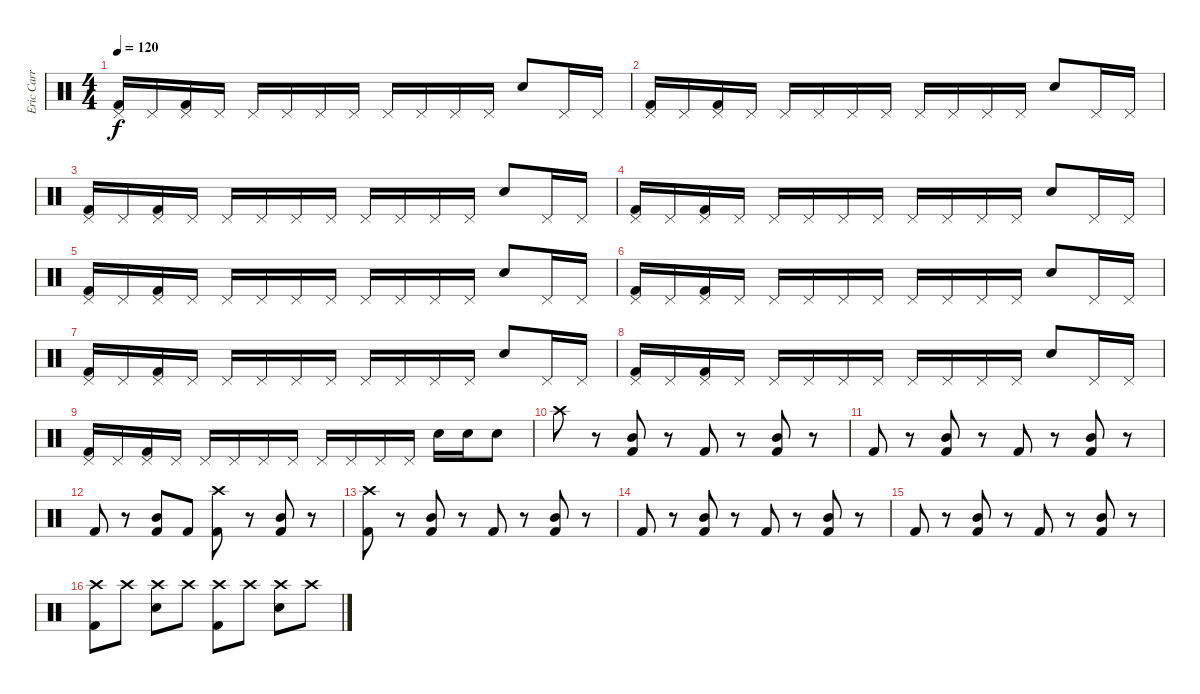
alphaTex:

\track ("Eric Carr" "Eric Carr") {instrument percussion}
\staff {score}
\articulation defaults
\ts (4 4)
\tempo 120
\clef neutral
\ks c
("Kick (hit) 2" "Pedal Hi-Hat (hit)").16{dy f} "Pedal Hi-Hat (hit)".16 ("Kick (hit) 2" "Pedal Hi-Hat (hit)").16 "Pedal Hi-Hat (hit)".16 "Pedal Hi-Hat (hit)".16 "Pedal Hi-Hat (hit)".16 "Pedal Hi-Hat (hit)".16 "Pedal Hi-Hat (hit)".16 "Pedal Hi-Hat (hit)".16 "Pedal Hi-Hat (hit)".16 "Pedal Hi-Hat (hit)".16 "Pedal Hi-Hat (hit)".16 "Snare (hit) 2".8 "Pedal Hi-Hat (hit)".16 "Pedal Hi-Hat (hit)".16 |
("Kick (hit) 2" "Pedal Hi-Hat (hit)").16 "Pedal Hi-Hat (hit)".16 ("Kick (hit) 2" "Pedal Hi-Hat (hit)").16 "Pedal Hi-Hat (hit)".16 "Pedal Hi-Hat (hit)".16 "Pedal Hi-Hat (hit)".16 "Pedal Hi-Hat (hit)".16 "Pedal Hi-Hat (hit)".16 "Pedal Hi-Hat (hit)".16 "Pedal Hi-Hat (hit)".16 "Pedal Hi-Hat (hit)".16 "Pedal Hi-Hat (hit)".16 "Snare (hit) 2".8 "Pedal Hi-Hat (hit)".16 "Pedal Hi-Hat (hit)".16 |
("Kick (hit) 2" "Pedal Hi-Hat (hit)").16 "Pedal Hi-Hat (hit)".16 ("Kick (hit) 2" "Pedal Hi-Hat (hit)").16 "Pedal Hi-Hat (hit)".16 "Pedal Hi-Hat (hit)".16 "Pedal Hi-Hat (hit)".16 "Pedal Hi-Hat (hit)".16 "Pedal Hi-Hat (hit)".16 "Pedal Hi-Hat (hit)".16 "Pedal Hi-Hat (hit)".16 "Pedal Hi-Hat (hit)".16 "Pedal Hi-Hat (hit)".16 "Snare (hit) 2".8 "Pedal Hi-Hat (hit)".16 "Pedal Hi-Hat (hit)".16 |
("Kick (hit) 2" "Pedal Hi-Hat (hit)").16 "Pedal Hi-Hat (hit)".16 ("Kick (hit) 2" "Pedal Hi-Hat (hit)").16 "Pedal Hi-Hat (hit)".16 "Pedal Hi-Hat (hit)".16 "Pedal Hi-Hat (hit)".16 "Pedal Hi-Hat (hit)".16 "Pedal Hi-Hat (hit)".16 "Pedal Hi-Hat (hit)".16 "Pedal Hi-Hat (hit)".16 "Pedal Hi-Hat (hit)".16 "Pedal Hi-Hat (hit)".16 "Snare (hit) 2".8 "Pedal Hi-Hat (hit)".16 "Pedal Hi-Hat (hit)".16 |
("Kick (hit) 2" "Pedal Hi-Hat (hit)").16 "Pedal Hi-Hat (hit)".16 ("Kick (hit) 2" "Pedal Hi-Hat (hit)").16 "Pedal Hi-Hat (hit)".16 "Pedal Hi-Hat (hit)".16 "Pedal Hi-Hat (hit)".16 "Pedal Hi-Hat (hit)".16 "Pedal Hi-Hat (hit)".16 "Pedal Hi-Hat (hit)".16 "Pedal Hi-Hat (hit)".16 "Pedal Hi-Hat (hit)".16 "Pedal Hi-Hat (hit)".16 "Snare (hit) 2".8 "Pedal Hi-Hat (hit)".16 "Pedal Hi-Hat (hit)".16 |
("Kick (hit) 2" "Pedal Hi-Hat (hit)").16 "Pedal Hi-Hat (hit)".16 ("Kick (hit) 2" "Pedal Hi-Hat (hit)").16 "Pedal Hi-Hat (hit)".16 "Pedal Hi-Hat (hit)".16 "Pedal Hi-Hat (hit)".16 "Pedal Hi-Hat (hit)".16 "Pedal Hi-Hat (hit)".16 "Pedal Hi-Hat (hit)".16 "Pedal Hi-Hat (hit)".16 "Pedal Hi-Hat (hit)".16 "Pedal Hi-Hat (hit)".16 "Snare (hit) 2".8 "Pedal Hi-Hat (hit)".16 "Pedal Hi-Hat (hit)".16 |
("Kick (hit) 2" "Pedal Hi-Hat (hit)").16 "Pedal Hi-Hat (hit)".16 ("Kick (hit) 2" "Pedal Hi-Hat (hit)").16 "Pedal Hi-Hat (hit)".16 "Pedal Hi-Hat (hit)".16 "Pedal Hi-Hat (hit)".16 "Pedal Hi-Hat (hit)".16 "Pedal Hi-Hat (hit)".16 "Pedal Hi-Hat (hit)".16 "Pedal Hi-Hat (hit)".16 "Pedal Hi-Hat (hit)".16 "Pedal Hi-Hat (hit)".16 "Snare (hit) 2".8 "Pedal Hi-Hat (hit)".16 "Pedal Hi-Hat (hit)".16 |
("Kick (hit) 2" "Pedal Hi-Hat (hit)").16 "Pedal Hi-Hat (hit)".16 ("Kick (hit) 2" "Pedal Hi-Hat (hit)").16 "Pedal Hi-Hat (hit)".16 "Pedal Hi-Hat (hit)".16 "Pedal Hi-Hat (hit)".16 "Pedal Hi-Hat (hit)".16 "Pedal Hi-Hat (hit)".16 "Pedal Hi-Hat (hit)".16 "Pedal Hi-Hat (hit)".16 "Pedal Hi-Hat (hit)".16 "Pedal Hi-Hat (hit)".16 "Snare (hit) 2".8 "Pedal Hi-Hat (hit)".16 "Pedal Hi-Hat (hit)".16 |
("Kick (hit) 2" "Pedal Hi-Hat (hit)").16 "Pedal Hi-Hat (hit)".16 ("Kick (hit) 2" "Pedal Hi-Hat (hit)").16 "Pedal Hi-Hat (hit)".16 "Pedal Hi-Hat (hit)".16 "Pedal Hi-Hat (hit)".16 "Pedal Hi-Hat (hit)".16 "Pedal Hi-Hat (hit)".16 "Pedal Hi-Hat (hit)".16 "Pedal Hi-Hat (hit)".16 "Pedal Hi-Hat (hit)".16 "Pedal Hi-Hat (hit)".16 "Snare (hit) 2".16 "Snare (hit) 2".16 "Snare (hit) 2".8 |
"Crash high (hit)".8 r.8 ("Kick (hit) 2" "Mid Tom (hit)").8 r.8 "Kick (hit) 2".8 r.8 ("Kick (hit) 2" "Mid Tom (hit)").8 r.8 |
"Kick (hit) 2".8 r.8 ("Kick (hit) 2" "Mid Tom (hit)").8 r.8 "Kick (hit) 2".8 r.8 ("Kick (hit) 2" "Mid Tom (hit)").8 r.8 |
"Kick (hit) 2".8 r.8 ("Kick (hit) 2" "Mid Tom (hit)").8 "Kick (hit) 2".8 ("Kick (hit) 2" "Crash high (hit)").8 r.8 ("Kick (hit) 2" "Mid Tom (hit)").8 r.8 |
("Kick (hit) 2" "Crash high (hit)").8 r.8 ("Kick (hit) 2" "Mid Tom (hit)").8 r.8 "Kick (hit) 2".8 r.8 ("Kick (hit) 2" "Mid Tom (hit)").8 r.8 |
"Kick (hit) 2".8 r.8 ("Kick (hit) 2" "Mid Tom (hit)").8 r.8 "Kick (hit) 2".8 r.8 ("Kick (hit) 2" "Mid Tom (hit)").8 r.8 |
"Kick (hit) 2".8 r.8 ("Kick (hit) 2" "Mid Tom (hit)").8 r.8 "Kick (hit) 2".8 r.8 ("Kick (hit) 2" "Mid Tom (hit)").8 r.8 |
("Kick (hit) 2" "Crash high (hit)").8 "Crash high (hit)".8 ("Snare (hit) 2" "Crash high (hit)").8 "Crash high (hit)".8 ("Kick (hit) 2" "Crash high (hit)").8 "Crash high (hit)".8 ("Snare (hit) 2" "Crash high (hit)").8 "Crash high (hit)".8
